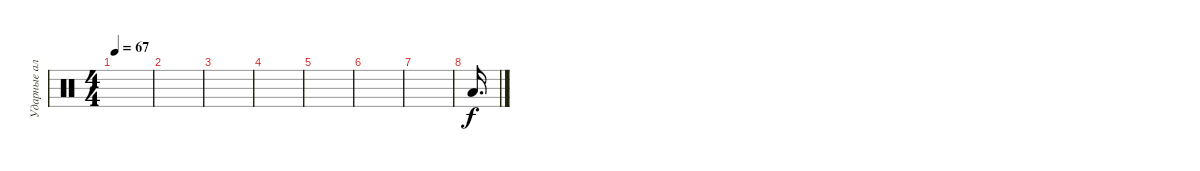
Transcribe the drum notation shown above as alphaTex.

\track ("Ударные альты" "Ударные ал") {instrument percussion}
\staff {score}
\articulation defaults
\ts (4 4)
\tempo 67
\clef neutral
\ks c
|
|
|
|
|
|
|
"Low Tom (hit)".16{d dy f}
